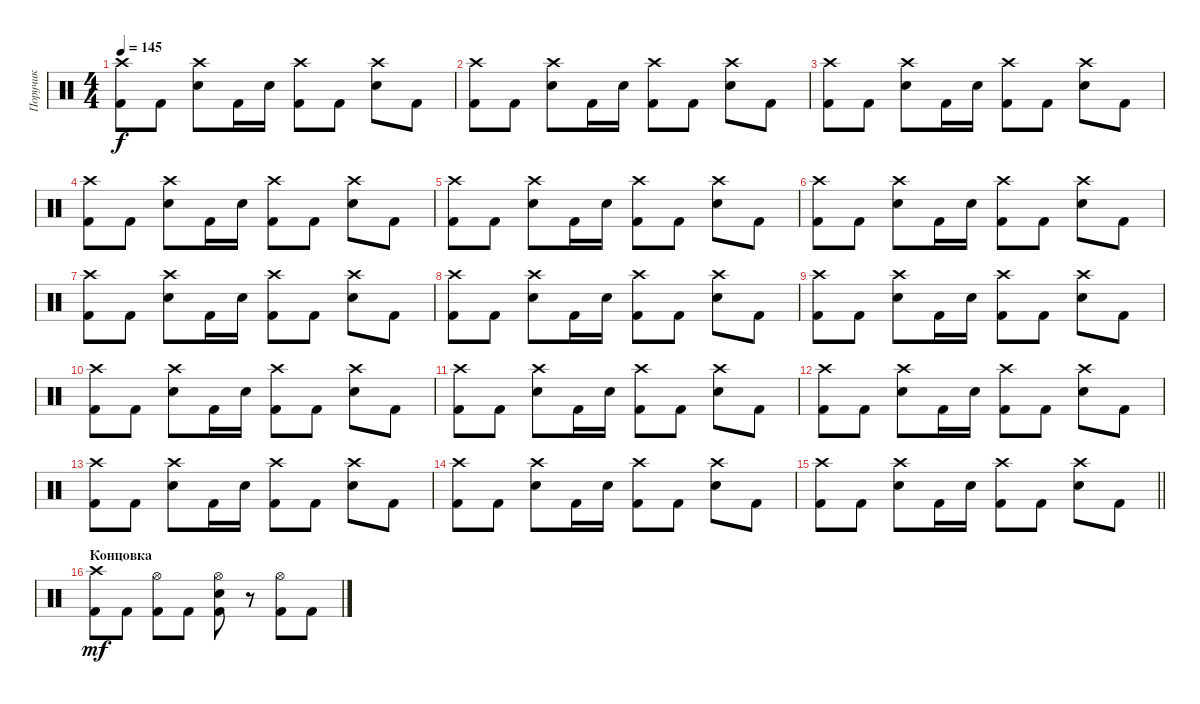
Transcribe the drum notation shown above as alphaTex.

\track ("Поручик" "Поручик") {instrument percussion}
\staff {score}
\articulation defaults
\ts (4 4)
\tempo 145
\clef neutral
\ks c
("Crash high (hit)" "Kick (hit) 2").8{dy f} "Kick (hit) 2".8 ("Crash high (hit)" "Electric Snare (hit)").8 "Kick (hit) 2".16 "Electric Snare (hit)".16 ("Crash high (hit)" "Kick (hit) 2").8 "Kick (hit) 2".8 ("Crash high (hit)" "Electric Snare (hit)").8 "Kick (hit) 2".8 |
("Crash high (hit)" "Kick (hit) 2").8 "Kick (hit) 2".8 ("Crash high (hit)" "Electric Snare (hit)").8 "Kick (hit) 2".16 "Electric Snare (hit)".16 ("Crash high (hit)" "Kick (hit) 2").8 "Kick (hit) 2".8 ("Crash high (hit)" "Electric Snare (hit)").8 "Kick (hit) 2".8 |
("Crash high (hit)" "Kick (hit) 2").8 "Kick (hit) 2".8 ("Crash high (hit)" "Electric Snare (hit)").8 "Kick (hit) 2".16 "Electric Snare (hit)".16 ("Crash high (hit)" "Kick (hit) 2").8 "Kick (hit) 2".8 ("Crash high (hit)" "Electric Snare (hit)").8 "Kick (hit) 2".8 |
("Crash high (hit)" "Kick (hit) 2").8 "Kick (hit) 2".8 ("Crash high (hit)" "Electric Snare (hit)").8 "Kick (hit) 2".16 "Electric Snare (hit)".16 ("Crash high (hit)" "Kick (hit) 2").8 "Kick (hit) 2".8 ("Crash high (hit)" "Electric Snare (hit)").8 "Kick (hit) 2".8 |
("Crash high (hit)" "Kick (hit) 2").8 "Kick (hit) 2".8 ("Crash high (hit)" "Electric Snare (hit)").8 "Kick (hit) 2".16 "Electric Snare (hit)".16 ("Crash high (hit)" "Kick (hit) 2").8 "Kick (hit) 2".8 ("Crash high (hit)" "Electric Snare (hit)").8 "Kick (hit) 2".8 |
("Crash high (hit)" "Kick (hit) 2").8 "Kick (hit) 2".8 ("Crash high (hit)" "Electric Snare (hit)").8 "Kick (hit) 2".16 "Electric Snare (hit)".16 ("Crash high (hit)" "Kick (hit) 2").8 "Kick (hit) 2".8 ("Crash high (hit)" "Electric Snare (hit)").8 "Kick (hit) 2".8 |
("Crash high (hit)" "Kick (hit) 2").8 "Kick (hit) 2".8 ("Crash high (hit)" "Electric Snare (hit)").8 "Kick (hit) 2".16 "Electric Snare (hit)".16 ("Crash high (hit)" "Kick (hit) 2").8 "Kick (hit) 2".8 ("Crash high (hit)" "Electric Snare (hit)").8 "Kick (hit) 2".8 |
("Crash high (hit)" "Kick (hit) 2").8 "Kick (hit) 2".8 ("Crash high (hit)" "Electric Snare (hit)").8 "Kick (hit) 2".16 "Electric Snare (hit)".16 ("Crash high (hit)" "Kick (hit) 2").8 "Kick (hit) 2".8 ("Crash high (hit)" "Electric Snare (hit)").8 "Kick (hit) 2".8 |
("Crash high (hit)" "Kick (hit) 2").8 "Kick (hit) 2".8 ("Crash high (hit)" "Electric Snare (hit)").8 "Kick (hit) 2".16 "Electric Snare (hit)".16 ("Crash high (hit)" "Kick (hit) 2").8 "Kick (hit) 2".8 ("Crash high (hit)" "Electric Snare (hit)").8 "Kick (hit) 2".8 |
("Crash high (hit)" "Kick (hit) 2").8 "Kick (hit) 2".8 ("Crash high (hit)" "Electric Snare (hit)").8 "Kick (hit) 2".16 "Electric Snare (hit)".16 ("Crash high (hit)" "Kick (hit) 2").8 "Kick (hit) 2".8 ("Crash high (hit)" "Electric Snare (hit)").8 "Kick (hit) 2".8 |
("Crash high (hit)" "Kick (hit) 2").8 "Kick (hit) 2".8 ("Crash high (hit)" "Electric Snare (hit)").8 "Kick (hit) 2".16 "Electric Snare (hit)".16 ("Crash high (hit)" "Kick (hit) 2").8 "Kick (hit) 2".8 ("Crash high (hit)" "Electric Snare (hit)").8 "Kick (hit) 2".8 |
("Crash high (hit)" "Kick (hit) 2").8 "Kick (hit) 2".8 ("Crash high (hit)" "Electric Snare (hit)").8 "Kick (hit) 2".16 "Electric Snare (hit)".16 ("Crash high (hit)" "Kick (hit) 2").8 "Kick (hit) 2".8 ("Crash high (hit)" "Electric Snare (hit)").8 "Kick (hit) 2".8 |
("Crash high (hit)" "Kick (hit) 2").8 "Kick (hit) 2".8 ("Crash high (hit)" "Electric Snare (hit)").8 "Kick (hit) 2".16 "Electric Snare (hit)".16 ("Crash high (hit)" "Kick (hit) 2").8 "Kick (hit) 2".8 ("Crash high (hit)" "Electric Snare (hit)").8 "Kick (hit) 2".8 |
("Crash high (hit)" "Kick (hit) 2").8 "Kick (hit) 2".8 ("Crash high (hit)" "Electric Snare (hit)").8 "Kick (hit) 2".16 "Electric Snare (hit)".16 ("Crash high (hit)" "Kick (hit) 2").8 "Kick (hit) 2".8 ("Crash high (hit)" "Electric Snare (hit)").8 "Kick (hit) 2".8 |
\barLineRight lightlight
("Crash high (hit)" "Kick (hit) 2").8 "Kick (hit) 2".8 ("Crash high (hit)" "Electric Snare (hit)").8 "Kick (hit) 2".16 "Electric Snare (hit)".16 ("Crash high (hit)" "Kick (hit) 2").8 "Kick (hit) 2".8 ("Crash high (hit)" "Electric Snare (hit)").8 "Kick (hit) 2".8 |
\section ("" "Концовка")
("Crash high (hit)" "Kick (hit) 2").8{dy mf} "Kick (hit) 2".8 ("Hi-Hat (open)" "Kick (hit) 2").8 "Kick (hit) 2".8 ("Hi-Hat (open)" "Electric Snare (hit)" "Kick (hit) 2").8 r.8 ("Hi-Hat (open)" "Kick (hit) 2").8 "Kick (hit) 2".8
